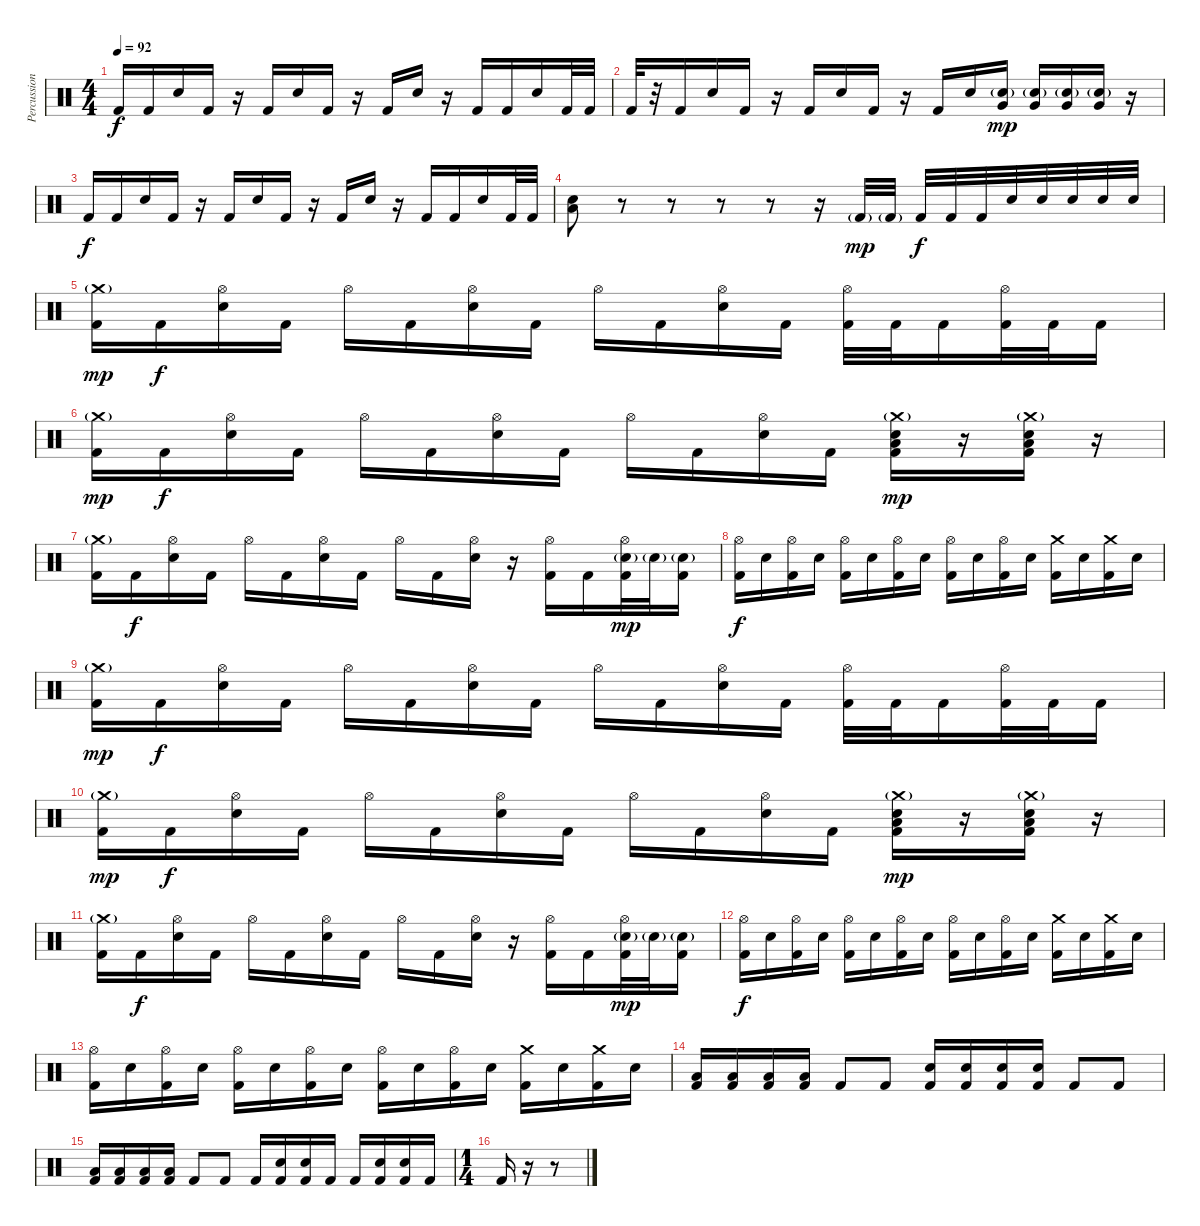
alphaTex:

\track ("Percussion" "Percussion") {instrument percussion}
\staff {score}
\articulation defaults
\ts (4 4)
\tempo 92
\clef neutral
\ks c "Kick (hit) 2".16{dy f} "Kick (hit) 2".16 "Electric Snare (hit)".16 "Kick (hit) 2".16
r.16 "Kick (hit) 2".16 "Electric Snare (hit)".16 "Kick (hit) 2".16 r.16 "Kick (hit) 2".16 "Electric Snare (hit)".16 r.16 "Kick (hit) 2".16 "Kick (hit) 2".16 "Electric Snare (hit)".16 "Kick (hit) 2".32 "Kick (hit) 2".32 |
"Kick (hit) 2".32 r.32 "Kick (hit) 2".16 "Electric Snare (hit)".16 "Kick (hit) 2".16 r.16 "Kick (hit) 2".16 "Electric Snare (hit)".16 "Kick (hit) 2".16 r.16 "Kick (hit) 2".16 "Electric Snare (hit)".16 ("Very Low Tom (hit)" "Electric Snare (hit)"{g}).16{dy mp} ("Very Low Tom (hit)" "Electric Snare (hit)"{g}).16 ("Very Low Tom (hit)" "Electric Snare (hit)"{g}).16 ("Very Low Tom (hit)" "Electric Snare (hit)"{g}).16 r.16 |
"Kick (hit) 2".16{dy f} "Kick (hit) 2".16 "Electric Snare (hit)".16 "Kick (hit) 2".16 r.16 "Kick (hit) 2".16 "Electric Snare (hit)".16 "Kick (hit) 2".16 r.16 "Kick (hit) 2".16 "Electric Snare (hit)".16 r.16 "Kick (hit) 2".16 "Kick (hit) 2".16 "Electric Snare (hit)".16 "Kick (hit) 2".32 "Kick (hit) 2".32 |
("Low Floor Tom (hit)" "Electric Snare (hit)").8 r.8 r.8 r.8 r.8 r.16 "Kick (hit) 2"{g}.32{dy mp} "Kick (hit) 2"{g}.32 "Kick (hit) 2".32{dy f} "Kick (hit) 2".32 "Kick (hit) 2".32 "Electric Snare (hit)".32 "Electric Snare (hit)".32 "Electric Snare (hit)".32 "Electric Snare (hit)".32 "Electric Snare (hit)".32 |
("Crash medium (hit)"{g} "Kick (hit) 2").16{dy mp} "Kick (hit) 2".16{dy f} ("Hi-Hat (open)" "Electric Snare (hit)").16 "Kick (hit) 2".16 "Hi-Hat (open)".16 "Kick (hit) 2".16 ("Hi-Hat (open)" "Electric Snare (hit)").16 "Kick (hit) 2".16 "Hi-Hat (open)".16 "Kick (hit) 2".16 ("Hi-Hat (open)" "Electric Snare (hit)").16 "Kick (hit) 2".16 ("Hi-Hat (open)" "Kick (hit) 2").32 "Kick (hit) 2".32 "Kick (hit) 2".16 ("Hi-Hat (open)" "Kick (hit) 2").32 "Kick (hit) 2".32 "Kick (hit) 2".16 |
("Crash medium (hit)"{g} "Kick (hit) 2").16{dy mp} "Kick (hit) 2".16{dy f} ("Hi-Hat (open)" "Electric Snare (hit)").16 "Kick (hit) 2".16 "Hi-Hat (open)".16 "Kick (hit) 2".16 ("Hi-Hat (open)" "Electric Snare (hit)").16 "Kick (hit) 2".16 "Hi-Hat (open)".16 "Kick (hit) 2".16 ("Hi-Hat (open)" "Electric Snare (hit)").16 "Kick (hit) 2".16 ("Crash medium (hit)"{g} "Low Floor Tom (hit)" "Electric Snare (hit)" "Kick (hit) 2").16{dy mp} r.16 ("Crash medium (hit)"{g} "Low Floor Tom (hit)" "Electric Snare (hit)" "Kick (hit) 2").16 r.16 |
("Crash medium (hit)"{g} "Kick (hit) 2").16 "Kick (hit) 2".16{dy f} ("Hi-Hat (open)" "Electric Snare (hit)").16 "Kick (hit) 2".16 "Hi-Hat (open)".16 "Kick (hit) 2".16 ("Hi-Hat (open)" "Electric Snare (hit)").16 "Kick (hit) 2".16 "Hi-Hat (open)".16 "Kick (hit) 2".16 ("Hi-Hat (open)" "Electric Snare (hit)").16 r.16 ("Hi-Hat (open)" "Kick (hit) 2").16 "Kick (hit) 2".16 ("Hi-Hat (open)" "Electric Snare (hit)"{g} "Kick (hit) 2").32{dy mp} "Electric Snare (hit)"{g}.32 ("Electric Snare (hit)"{g} "Kick (hit) 2").16 |
("Hi-Hat (open)" "Kick (hit) 2").16{dy f} "Electric Snare (hit)".16 ("Hi-Hat (open)" "Kick (hit) 2").16 "Electric Snare (hit)".16 ("Hi-Hat (open)" "Kick (hit) 2").16 "Electric Snare (hit)".16 ("Hi-Hat (open)" "Kick (hit) 2").16 "Electric Snare (hit)".16 ("Hi-Hat (open)" "Kick (hit) 2").16 "Electric Snare (hit)".16 ("Hi-Hat (open)" "Kick (hit) 2").16 "Electric Snare (hit)".16 ("Crash medium (hit)" "Kick (hit) 2").16 "Electric Snare (hit)".16 ("Crash medium (hit)" "Kick (hit) 2").16 "Electric Snare (hit)".16 |
("Crash medium (hit)"{g} "Kick (hit) 2").16{dy mp} "Kick (hit) 2".16{dy f} ("Hi-Hat (open)" "Electric Snare (hit)").16 "Kick (hit) 2".16 "Hi-Hat (open)".16 "Kick (hit) 2".16 ("Hi-Hat (open)" "Electric Snare (hit)").16 "Kick (hit) 2".16 "Hi-Hat (open)".16 "Kick (hit) 2".16 ("Hi-Hat (open)" "Electric Snare (hit)").16 "Kick (hit) 2".16 ("Hi-Hat (open)" "Kick (hit) 2").32 "Kick (hit) 2".32 "Kick (hit) 2".16 ("Hi-Hat (open)" "Kick (hit) 2").32 "Kick (hit) 2".32 "Kick (hit) 2".16 |
("Crash medium (hit)"{g} "Kick (hit) 2").16{dy mp} "Kick (hit) 2".16{dy f} ("Hi-Hat (open)" "Electric Snare (hit)").16 "Kick (hit) 2".16 "Hi-Hat (open)".16 "Kick (hit) 2".16 ("Hi-Hat (open)" "Electric Snare (hit)").16 "Kick (hit) 2".16 "Hi-Hat (open)".16 "Kick (hit) 2".16 ("Hi-Hat (open)" "Electric Snare (hit)").16 "Kick (hit) 2".16 ("Crash medium (hit)"{g} "Low Floor Tom (hit)" "Electric Snare (hit)" "Kick (hit) 2").16{dy mp} r.16 ("Crash medium (hit)"{g} "Low Floor Tom (hit)" "Electric Snare (hit)" "Kick (hit) 2").16 r.16 |
("Crash medium (hit)"{g} "Kick (hit) 2").16 "Kick (hit) 2".16{dy f} ("Hi-Hat (open)" "Electric Snare (hit)").16 "Kick (hit) 2".16 "Hi-Hat (open)".16 "Kick (hit) 2".16 ("Hi-Hat (open)" "Electric Snare (hit)").16 "Kick (hit) 2".16 "Hi-Hat (open)".16 "Kick (hit) 2".16 ("Hi-Hat (open)" "Electric Snare (hit)").16 r.16 ("Hi-Hat (open)" "Kick (hit) 2").16 "Kick (hit) 2".16 ("Hi-Hat (open)" "Electric Snare (hit)"{g} "Kick (hit) 2").32{dy mp} "Electric Snare (hit)"{g}.32 ("Electric Snare (hit)"{g} "Kick (hit) 2").16 |
("Hi-Hat (open)" "Kick (hit) 2").16{dy f} "Electric Snare (hit)".16 ("Hi-Hat (open)" "Kick (hit) 2").16 "Electric Snare (hit)".16 ("Hi-Hat (open)" "Kick (hit) 2").16 "Electric Snare (hit)".16 ("Hi-Hat (open)" "Kick (hit) 2").16 "Electric Snare (hit)".16 ("Hi-Hat (open)" "Kick (hit) 2").16 "Electric Snare (hit)".16 ("Hi-Hat (open)" "Kick (hit) 2").16 "Electric Snare (hit)".16 ("Crash medium (hit)" "Kick (hit) 2").16 "Electric Snare (hit)".16 ("Crash medium (hit)" "Kick (hit) 2").16 "Electric Snare (hit)".16 |
("Hi-Hat (open)" "Kick (hit) 2").16 "Electric Snare (hit)".16 ("Hi-Hat (open)" "Kick (hit) 2").16 "Electric Snare (hit)".16 ("Hi-Hat (open)" "Kick (hit) 2").16 "Electric Snare (hit)".16 ("Hi-Hat (open)" "Kick (hit) 2").16 "Electric Snare (hit)".16 ("Hi-Hat (open)" "Kick (hit) 2").16 "Electric Snare (hit)".16 ("Hi-Hat (open)" "Kick (hit) 2").16 "Electric Snare (hit)".16 ("Crash medium (hit)" "Kick (hit) 2").16 "Electric Snare (hit)".16 ("Crash medium (hit)" "Kick (hit) 2").16 "Electric Snare (hit)".16 |
("Low Tom (hit)" "Kick (hit) 2").16 ("Low Tom (hit)" "Kick (hit) 2").16 ("Low Tom (hit)" "Kick (hit) 2").16 ("Low Tom (hit)" "Kick (hit) 2").16 "Kick (hit) 2".8 "Kick (hit) 2".8 ("Snare (hit) 2" "Kick (hit) 2").16 ("Snare (hit) 2" "Kick (hit) 2").16 ("Snare (hit) 2" "Kick (hit) 2").16 ("Snare (hit) 2" "Kick (hit) 2").16 "Kick (hit) 2".8 "Kick (hit) 2".8 |
("Low Floor Tom (hit)" "Kick (hit) 2").16 ("Low Floor Tom (hit)" "Kick (hit) 2").16 ("Low Floor Tom (hit)" "Kick (hit) 2").16 ("Low Floor Tom (hit)" "Kick (hit) 2").16 "Kick (hit) 2".8 "Kick (hit) 2".8 "Kick (hit) 2".16 ("Electric Snare (hit)" "Kick (hit) 2").16 ("Electric Snare (hit)" "Kick (hit) 2").16 "Kick (hit) 2".16 "Kick (hit) 2".16 ("Electric Snare (hit)" "Kick (hit) 2").16 ("Electric Snare (hit)" "Kick (hit) 2").16 "Kick (hit) 2".16 |
\ts (1 4)
"Kick (hit) 2".16 r.16 r.8
